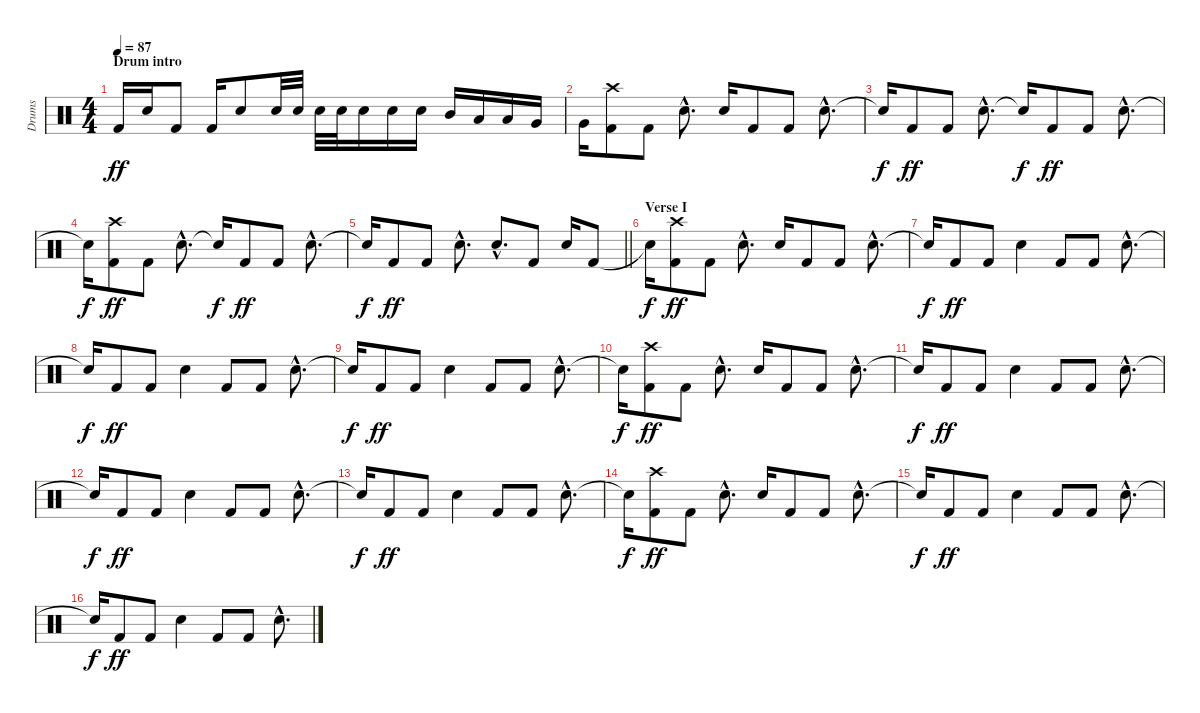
\track ("Drums" "Drums") {instrument percussion}
\staff {score}
\articulation defaults
\ts (4 4)
\section ("" "Drum intro")
\tempo 87
\clef neutral
\ks c "Kick (hit) 2".16{dy ff} "Electric Snare (hit)".16 "Kick (hit) 2".8 "Kick (hit) 2".16 "Electric Snare (hit)".8 "Electric Snare (hit)".32 "Electric Snare (hit)".32 "Electric Snare (hit)".32 "Electric Snare (hit)".32 "Electric Snare (hit)".16 "Electric Snare (hit)".16 "Electric Snare (hit)".16 "Mid Tom (hit)".16 "Low Tom (hit)".16 "Low Tom (hit)".16 "Very Low Tom (hit)".16
|
"Very Low Tom (hit)".16 ("Kick (hit) 2" "Crash high (hit)").8 "Kick (hit) 2".8 "Electric Snare (hit)"{hac}.8{d} "Electric Snare (hit)".16 "Kick (hit) 2".8 "Kick (hit) 2".8 "Electric Snare (hit)"{hac}.8{d} |
"Snare (hit)"{t}.16{dy f} "Kick (hit) 2".8{dy ff} "Kick (hit) 2".8 "Electric Snare (hit)"{hac}.8{d} "Snare (hit)"{t}.16{dy f} "Kick (hit) 2".8{dy ff} "Kick (hit) 2".8 "Electric Snare (hit)"{hac}.8{d} |
"Snare (hit)"{t}.16{dy f} ("Kick (hit) 2" "Crash high (hit)").8{dy ff} "Kick (hit) 2".8 "Electric Snare (hit)"{hac}.8{d} "Snare (hit)"{t}.16{dy f} "Kick (hit) 2".8{dy ff} "Kick (hit) 2".8 "Electric Snare (hit)"{hac}.8{d} |
\barLineRight lightlight "Snare (hit)"{t}.16{dy f} "Kick (hit) 2".8{dy ff} "Kick (hit) 2".8 "Electric Snare (hit)"{hac}.8{d} "Electric Snare (hit)"{hac}.8{d} "Kick (hit) 2".8 "Electric Snare (hit)".16 "Kick (hit) 2".8
|
\section ("" "Verse I")
"Snare (hit)"{t}.16{dy f} ("Kick (hit) 2" "Crash high (hit)").8{dy ff} "Kick (hit) 2".8 "Electric Snare (hit)"{hac}.8{d} "Electric Snare (hit)".16 "Kick (hit) 2".8 "Kick (hit) 2".8 "Electric Snare (hit)"{hac}.8{d} |
"Snare (hit)"{t}.16{dy f} "Kick (hit) 2".8{dy ff} "Kick (hit) 2".8 "Electric Snare (hit)".4 "Kick (hit) 2".8 "Kick (hit) 2".8 "Electric Snare (hit)"{hac}.8{d} |
"Snare (hit)"{t}.16{dy f} "Kick (hit) 2".8{dy ff} "Kick (hit) 2".8 "Electric Snare (hit)".4 "Kick (hit) 2".8 "Kick (hit) 2".8 "Electric Snare (hit)"{hac}.8{d} |
"Snare (hit)"{t}.16{dy f} "Kick (hit) 2".8{dy ff} "Kick (hit) 2".8 "Electric Snare (hit)".4 "Kick (hit) 2".8 "Kick (hit) 2".8 "Electric Snare (hit)"{hac}.8{d} |
"Snare (hit)"{t}.16{dy f} ("Kick (hit) 2" "Crash high (hit)").8{dy ff} "Kick (hit) 2".8 "Electric Snare (hit)"{hac}.8{d} "Electric Snare (hit)".16 "Kick (hit) 2".8 "Kick (hit) 2".8 "Electric Snare (hit)"{hac}.8{d} |
"Snare (hit)"{t}.16{dy f} "Kick (hit) 2".8{dy ff} "Kick (hit) 2".8 "Electric Snare (hit)".4 "Kick (hit) 2".8 "Kick (hit) 2".8 "Electric Snare (hit)"{hac}.8{d} |
"Snare (hit)"{t}.16{dy f} "Kick (hit) 2".8{dy ff} "Kick (hit) 2".8 "Electric Snare (hit)".4 "Kick (hit) 2".8 "Kick (hit) 2".8 "Electric Snare (hit)"{hac}.8{d} |
"Snare (hit)"{t}.16{dy f} "Kick (hit) 2".8{dy ff} "Kick (hit) 2".8 "Electric Snare (hit)".4 "Kick (hit) 2".8 "Kick (hit) 2".8 "Electric Snare (hit)"{hac}.8{d} |
"Snare (hit)"{t}.16{dy f} ("Kick (hit) 2" "Crash high (hit)").8{dy ff} "Kick (hit) 2".8 "Electric Snare (hit)"{hac}.8{d} "Electric Snare (hit)".16 "Kick (hit) 2".8 "Kick (hit) 2".8 "Electric Snare (hit)"{hac}.8{d} |
"Snare (hit)"{t}.16{dy f} "Kick (hit) 2".8{dy ff} "Kick (hit) 2".8 "Electric Snare (hit)".4 "Kick (hit) 2".8 "Kick (hit) 2".8 "Electric Snare (hit)"{hac}.8{d} |
"Snare (hit)"{t}.16{dy f} "Kick (hit) 2".8{dy ff} "Kick (hit) 2".8 "Electric Snare (hit)".4 "Kick (hit) 2".8 "Kick (hit) 2".8 "Electric Snare (hit)"{hac}.8{d}
